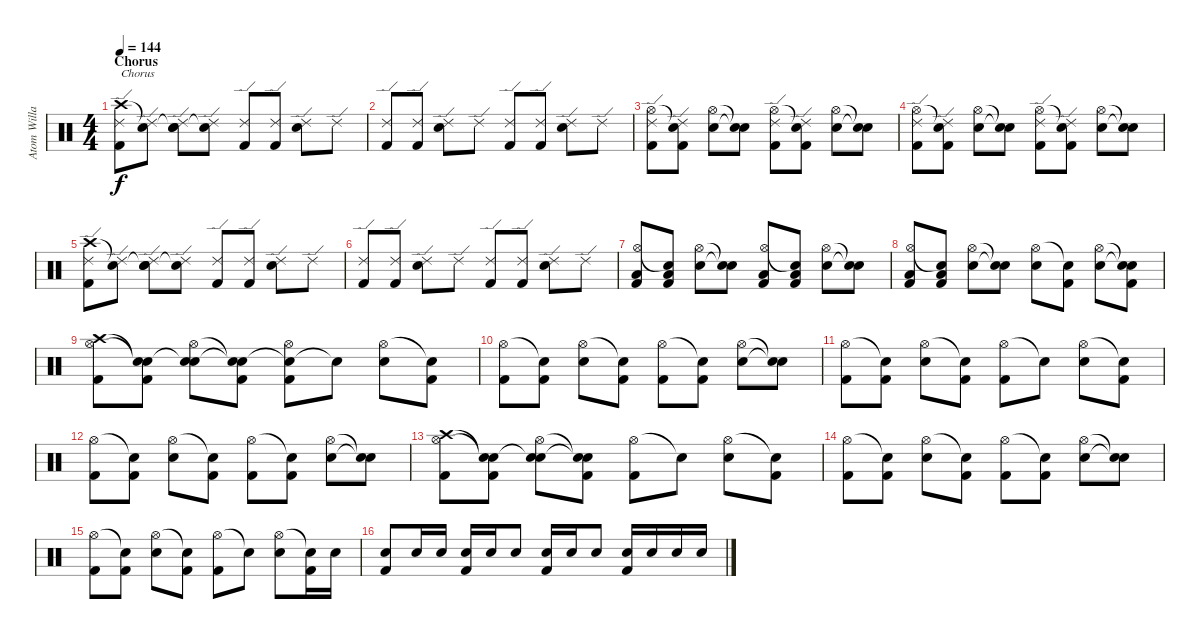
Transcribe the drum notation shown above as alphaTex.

\track ("Atom Willard (Drums)" "Atom Willa") {instrument percussion}
\staff {score}
\articulation defaults
\ts (4 4)
\section ("" "Chorus")
\tempo 144
\clef neutral
\ks c
("Crash high (hit)" "Ride (edge) 2" "Kick (hit) 2").8{txt "Chorus" dy f} ("Snare (hit)"{t} "Ride (edge) 2").8 ("Snare (hit)"{t} "Ride (edge) 2" "Electric Snare (hit)").8 ("Snare (hit)"{t} "Ride (edge) 2").8 ("Ride (edge) 2" "Kick (hit) 2").8 ("Ride (edge) 2" "Kick (hit) 2").8 ("Ride (edge) 2" "Electric Snare (hit)").8 "Ride (edge) 2".8 |
("Ride (edge) 2" "Kick (hit) 2").8 ("Ride (edge) 2" "Kick (hit) 2").8 ("Ride (edge) 2" "Electric Snare (hit)").8 "Ride (edge) 2".8 ("Ride (edge) 2" "Kick (hit) 2").8 ("Ride (edge) 2" "Kick (hit) 2").8 ("Ride (edge) 2" "Electric Snare (hit)").8 "Ride (edge) 2".8 |
("Hi-Hat (open)" "Ride (edge) 2" "Kick (hit) 2").8 ("Snare (hit)"{t} "Ride (edge) 2" "Kick (hit) 2").8 ("Hi-Hat (open)" "Electric Snare (hit)").8 ("Snare (hit)"{t} "Snare (hit)"{t}).8 ("Hi-Hat (open)" "Ride (edge) 2" "Kick (hit) 2").8 ("Snare (hit)"{t} "Ride (edge) 2" "Kick (hit) 2").8 ("Hi-Hat (open)" "Electric Snare (hit)").8 ("Snare (hit)"{t} "Snare (hit)"{t}).8 |
("Hi-Hat (open)" "Ride (edge) 2" "Kick (hit) 2").8 ("Snare (hit)"{t} "Ride (edge) 2" "Kick (hit) 2").8 ("Hi-Hat (open)" "Electric Snare (hit)").8 ("Snare (hit)"{t} "Snare (hit)"{t}).8 ("Hi-Hat (open)" "Ride (edge) 2" "Kick (hit) 2").8 ("Snare (hit)"{t} "Ride (edge) 2" "Kick (hit) 2").8 ("Hi-Hat (open)" "Electric Snare (hit)").8 ("Snare (hit)"{t} "Snare (hit)"{t}).8 |
("Crash high (hit)" "Ride (edge) 2" "Kick (hit) 2").8 ("Snare (hit)"{t} "Ride (edge) 2").8 ("Snare (hit)"{t} "Ride (edge) 2" "Electric Snare (hit)").8 ("Snare (hit)"{t} "Ride (edge) 2").8 ("Ride (edge) 2" "Kick (hit) 2").8 ("Ride (edge) 2" "Kick (hit) 2").8 ("Ride (edge) 2" "Electric Snare (hit)").8 "Ride (edge) 2".8 |
("Ride (edge) 2" "Kick (hit) 2").8 ("Ride (edge) 2" "Kick (hit) 2").8 ("Ride (edge) 2" "Electric Snare (hit)").8 "Ride (edge) 2".8 ("Ride (edge) 2" "Kick (hit) 2").8 ("Ride (edge) 2" "Kick (hit) 2").8 ("Ride (edge) 2" "Electric Snare (hit)").8 "Ride (edge) 2".8 |
("Hi-Hat (open)" "Low Tom (hit)" "Kick (hit) 2").8 ("Snare (hit)"{t} "Low Tom (hit)" "Kick (hit) 2").8 ("Hi-Hat (open)" "Electric Snare (hit)").8 ("Snare (hit)"{t} "Snare (hit)"{t}).8 ("Hi-Hat (open)" "Low Tom (hit)" "Kick (hit) 2").8 ("Snare (hit)"{t} "Low Tom (hit)" "Kick (hit) 2").8 ("Hi-Hat (open)" "Electric Snare (hit)").8 ("Snare (hit)"{t} "Snare (hit)"{t}).8 |
("Hi-Hat (open)" "Low Tom (hit)" "Kick (hit) 2").8 ("Snare (hit)"{t} "Low Tom (hit)" "Kick (hit) 2").8 ("Hi-Hat (open)" "Electric Snare (hit)").8 ("Snare (hit)"{t} "Snare (hit)"{t}).8 ("Hi-Hat (open)" "Electric Snare (hit)").8 ("Snare (hit)"{t} "Kick (hit) 2").8 ("Hi-Hat (open)" "Electric Snare (hit)").8 ("Snare (hit)"{t} "Snare (hit)"{t} "Kick (hit) 2").8 |
("Crash high (hit)" "Hi-Hat (open)" "Kick (hit) 2").8 ("Snare (hit)"{t} "Snare (hit)"{t} "Kick (hit) 2").8 ("Snare (hit)"{t} "Hi-Hat (open)" "Electric Snare (hit)").8 ("Snare (hit)"{t} "Snare (hit)"{t} "Kick (hit) 2").8 ("Snare (hit)"{t} "Hi-Hat (open)" "Kick (hit) 2").8 "Snare (hit)"{t}.8 ("Hi-Hat (open)" "Electric Snare (hit)").8 ("Snare (hit)"{t} "Kick (hit) 2").8 |
("Hi-Hat (open)" "Kick (hit) 2").8 ("Snare (hit)"{t} "Kick (hit) 2").8 ("Hi-Hat (open)" "Electric Snare (hit)").8 ("Snare (hit)"{t} "Kick (hit) 2").8 ("Hi-Hat (open)" "Kick (hit) 2").8 ("Snare (hit)"{t} "Kick (hit) 2").8 ("Hi-Hat (open)" "Electric Snare (hit)").8 ("Snare (hit)"{t} "Snare (hit)"{t}).8 |
("Hi-Hat (open)" "Kick (hit) 2").8 ("Snare (hit)"{t} "Kick (hit) 2").8 ("Hi-Hat (open)" "Electric Snare (hit)").8 ("Snare (hit)"{t} "Kick (hit) 2").8 ("Hi-Hat (open)" "Kick (hit) 2").8 "Snare (hit)"{t}.8 ("Hi-Hat (open)" "Electric Snare (hit)").8 ("Snare (hit)"{t} "Kick (hit) 2").8 |
("Hi-Hat (open)" "Kick (hit) 2").8 ("Snare (hit)"{t} "Kick (hit) 2").8 ("Hi-Hat (open)" "Electric Snare (hit)").8 ("Snare (hit)"{t} "Kick (hit) 2").8 ("Hi-Hat (open)" "Kick (hit) 2").8 ("Snare (hit)"{t} "Kick (hit) 2").8 ("Hi-Hat (open)" "Electric Snare (hit)").8 ("Snare (hit)"{t} "Snare (hit)"{t}).8 |
("Crash high (hit)" "Hi-Hat (open)" "Kick (hit) 2").8 ("Snare (hit)"{t} "Snare (hit)"{t} "Kick (hit) 2").8 ("Snare (hit)"{t} "Hi-Hat (open)" "Electric Snare (hit)").8 ("Snare (hit)"{t} "Snare (hit)"{t} "Kick (hit) 2").8 ("Hi-Hat (open)" "Kick (hit) 2").8 "Snare (hit)"{t}.8 ("Hi-Hat (open)" "Electric Snare (hit)").8 ("Snare (hit)"{t} "Kick (hit) 2").8 |
("Hi-Hat (open)" "Kick (hit) 2").8 ("Snare (hit)"{t} "Kick (hit) 2").8 ("Hi-Hat (open)" "Electric Snare (hit)").8 ("Snare (hit)"{t} "Kick (hit) 2").8 ("Hi-Hat (open)" "Kick (hit) 2").8 ("Snare (hit)"{t} "Kick (hit) 2").8 ("Hi-Hat (open)" "Electric Snare (hit)").8 ("Snare (hit)"{t} "Snare (hit)"{t}).8 |
("Hi-Hat (open)" "Kick (hit) 2").8 ("Snare (hit)"{t} "Kick (hit) 2").8 ("Hi-Hat (open)" "Electric Snare (hit)").8 ("Snare (hit)"{t} "Kick (hit) 2").8 ("Hi-Hat (open)" "Kick (hit) 2").8 "Snare (hit)"{t}.8 ("Hi-Hat (open)" "Electric Snare (hit)").8 ("Snare (hit)"{t} "Kick (hit) 2").16 "Electric Snare (hit)".16 |
("Electric Snare (hit)" "Kick (hit) 2").8 "Electric Snare (hit)".16 "Electric Snare (hit)".16 ("Electric Snare (hit)" "Kick (hit) 2").16 "Electric Snare (hit)".16 "Electric Snare (hit)".8 ("Electric Snare (hit)" "Kick (hit) 2").16 "Electric Snare (hit)".16 "Electric Snare (hit)".8 ("Electric Snare (hit)" "Kick (hit) 2").16 "Electric Snare (hit)".16 "Electric Snare (hit)".16 "Electric Snare (hit)".16
